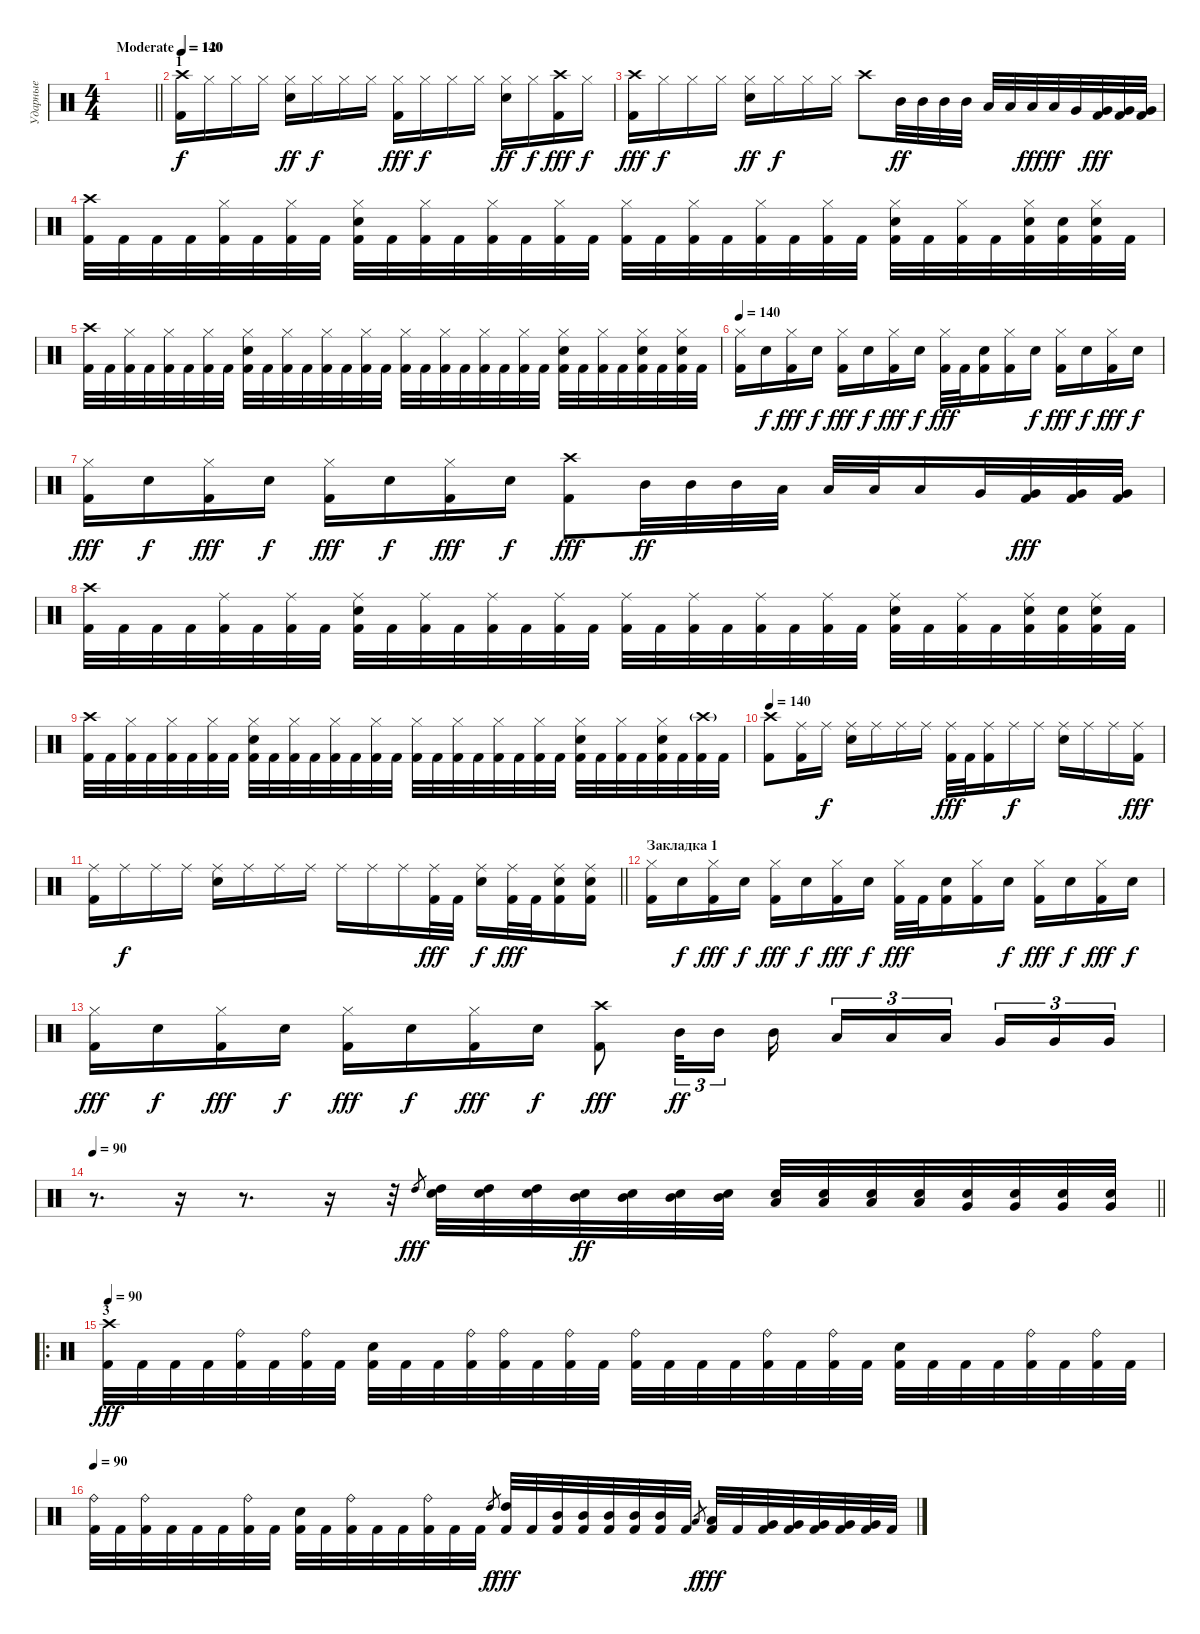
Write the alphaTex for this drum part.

\track ("Ударные" "Ударные") {instrument percussion}
\staff {score}
\articulation defaults
\ts (4 4)
\tempo (120 "Moderate")
\clef neutral
\barLineRight lightlight
\ks c
|
\section ("" "1")
\tempo 140
("Crash high (hit)" "Kick (hit) 2").16 "Hi-Hat (closed)".16{dy f} "Hi-Hat (closed)".16 "Hi-Hat (closed)".16 ("Hi-Hat (closed)" "Snare (hit) 2").16{dy ff} "Hi-Hat (closed)".16{dy f} "Hi-Hat (closed)".16 "Hi-Hat (closed)".16 ("Hi-Hat (closed)" "Kick (hit) 2").16{dy fff} "Hi-Hat (closed)".16{dy f} "Hi-Hat (closed)".16 "Hi-Hat (closed)".16 ("Hi-Hat (closed)" "Snare (hit) 2").16{dy ff} "Hi-Hat (closed)".16{dy f} ("Crash high (hit)" "Kick (hit) 2").16{dy fff} "Hi-Hat (closed)".16{dy f} |
("Crash high (hit)" "Kick (hit) 2").16{dy fff} "Hi-Hat (closed)".16{dy f} "Hi-Hat (closed)".16 "Hi-Hat (closed)".16 ("Hi-Hat (closed)" "Snare (hit) 2").16{dy ff} "Hi-Hat (closed)".16{dy f} "Hi-Hat (closed)".16 "Hi-Hat (closed)".16 "Crash high (hit)".8 "Mid Tom (hit)".32{dy ff} "Mid Tom (hit)".32 "Mid Tom (hit)".32 "Mid Tom (hit)".32 "Low Tom (hit)".32 "Low Tom (hit)".32 "Low Tom (hit)".32{dy fff} "Low Tom (hit)".32{dy ff} "Very Low Tom (hit)".32 ("Very Low Tom (hit)" "Kick (hit) 2").32{dy fff} ("Very Low Tom (hit)" "Kick (hit) 2").32 ("Very Low Tom (hit)" "Kick (hit) 2").32 |
("Crash high (hit)" "Kick (hit) 2").32 "Kick (hit) 2".32 "Kick (hit) 2".32 "Kick (hit) 2".32 ("Hi-Hat (closed)" "Kick (hit) 2").32 "Kick (hit) 2".32 ("Hi-Hat (closed)" "Kick (hit) 2").32 "Kick (hit) 2".32 ("Hi-Hat (closed)" "Snare (hit) 2" "Kick (hit) 2").32 "Kick (hit) 2".32 ("Hi-Hat (closed)" "Kick (hit) 2").32 "Kick (hit) 2".32 ("Hi-Hat (closed)" "Kick (hit) 2").32 "Kick (hit) 2".32 ("Hi-Hat (closed)" "Kick (hit) 2").32 "Kick (hit) 2".32 ("Hi-Hat (closed)" "Kick (hit) 2").32 "Kick (hit) 2".32 ("Hi-Hat (closed)" "Kick (hit) 2").32 "Kick (hit) 2".32 ("Hi-Hat (closed)" "Kick (hit) 2").32 "Kick (hit) 2".32 ("Hi-Hat (closed)" "Kick (hit) 2").32 "Kick (hit) 2".32 ("Hi-Hat (closed)" "Snare (hit) 2" "Kick (hit) 2").32 "Kick (hit) 2".32 ("Hi-Hat (closed)" "Kick (hit) 2").32 "Kick (hit) 2".32 ("Hi-Hat (closed)" "Snare (hit) 2" "Kick (hit) 2").32 ("Snare (hit) 2" "Kick (hit) 2").32 ("Hi-Hat (closed)" "Snare (hit) 2" "Kick (hit) 2").32 "Kick (hit) 2".32 |
("Crash high (hit)" "Kick (hit) 2").32 "Kick (hit) 2".32 ("Hi-Hat (closed)" "Kick (hit) 2").32 "Kick (hit) 2".32 ("Hi-Hat (closed)" "Kick (hit) 2").32 "Kick (hit) 2".32 ("Hi-Hat (closed)" "Kick (hit) 2").32 "Kick (hit) 2".32 ("Hi-Hat (closed)" "Snare (hit) 2" "Kick (hit) 2").32 "Kick (hit) 2".32 ("Hi-Hat (closed)" "Kick (hit) 2").32 "Kick (hit) 2".32 ("Hi-Hat (closed)" "Kick (hit) 2").32 "Kick (hit) 2".32 ("Hi-Hat (closed)" "Kick (hit) 2").32 "Kick (hit) 2".32 ("Hi-Hat (closed)" "Kick (hit) 2").32 "Kick (hit) 2".32 ("Hi-Hat (closed)" "Kick (hit) 2").32 "Kick (hit) 2".32 ("Hi-Hat (closed)" "Kick (hit) 2").32 "Kick (hit) 2".32 ("Hi-Hat (closed)" "Kick (hit) 2").32 "Kick (hit) 2".32 ("Hi-Hat (closed)" "Snare (hit) 2" "Kick (hit) 2").32 "Kick (hit) 2".32 ("Hi-Hat (closed)" "Kick (hit) 2").32 "Kick (hit) 2".32 ("Hi-Hat (closed)" "Snare (hit) 2" "Kick (hit) 2").32 "Kick (hit) 2".32 ("Hi-Hat (closed)" "Snare (hit) 2" "Kick (hit) 2").32 "Kick (hit) 2".32 |
\tempo 140
("Hi-Hat (closed)" "Kick (hit) 2").16 "Snare (hit) 2".16{dy f} ("Hi-Hat (closed)" "Kick (hit) 2").16{dy fff} "Snare (hit) 2".16{dy f} ("Hi-Hat (closed)" "Kick (hit) 2").16{dy fff} "Snare (hit) 2".16{dy f} ("Hi-Hat (closed)" "Kick (hit) 2").16{dy fff} "Snare (hit) 2".16{dy f} ("Hi-Hat (closed)" "Kick (hit) 2").32{dy fff} "Kick (hit) 2".32 ("Snare (hit) 2" "Kick (hit) 2").16 ("Hi-Hat (closed)" "Kick (hit) 2").16 "Snare (hit) 2".16{dy f} ("Hi-Hat (closed)" "Kick (hit) 2").16{dy fff} "Snare (hit) 2".16{dy f} ("Hi-Hat (closed)" "Kick (hit) 2").16{dy fff} "Snare (hit) 2".16{dy f} |
("Hi-Hat (closed)" "Kick (hit) 2").16{dy fff} "Snare (hit) 2".16{dy f} ("Hi-Hat (closed)" "Kick (hit) 2").16{dy fff} "Snare (hit) 2".16{dy f} ("Hi-Hat (closed)" "Kick (hit) 2").16{dy fff} "Snare (hit) 2".16{dy f} ("Hi-Hat (closed)" "Kick (hit) 2").16{dy fff} "Snare (hit) 2".16{dy f} ("Crash high (hit)" "Kick (hit) 2").8{dy fff} "Mid Tom (hit)".32{dy ff} "Mid Tom (hit)".32 "Mid Tom (hit)".32 "Low Tom (hit)".32 "Low Tom (hit)".32 "Low Tom (hit)".32 "Low Tom (hit)".16 "Very Low Tom (hit)".32 ("Very Low Tom (hit)" "Kick (hit) 2").32{dy fff} ("Very Low Tom (hit)" "Kick (hit) 2").32 ("Very Low Tom (hit)" "Kick (hit) 2").32 |
("Crash high (hit)" "Kick (hit) 2").32 "Kick (hit) 2".32 "Kick (hit) 2".32 "Kick (hit) 2".32 ("Ride (middle)" "Kick (hit) 2").32 "Kick (hit) 2".32 ("Ride (middle)" "Kick (hit) 2").32 "Kick (hit) 2".32 ("Ride (middle)" "Snare (hit) 2" "Kick (hit) 2").32 "Kick (hit) 2".32 ("Ride (middle)" "Kick (hit) 2").32 "Kick (hit) 2".32 ("Ride (middle)" "Kick (hit) 2").32 "Kick (hit) 2".32 ("Ride (middle)" "Kick (hit) 2").32 "Kick (hit) 2".32 ("Ride (middle)" "Kick (hit) 2").32 "Kick (hit) 2".32 ("Ride (middle)" "Kick (hit) 2").32 "Kick (hit) 2".32 ("Ride (middle)" "Kick (hit) 2").32 "Kick (hit) 2".32 ("Ride (middle)" "Kick (hit) 2").32 "Kick (hit) 2".32 ("Ride (middle)" "Snare (hit) 2" "Kick (hit) 2").32 "Kick (hit) 2".32 ("Ride (middle)" "Kick (hit) 2").32 "Kick (hit) 2".32 ("Ride (middle)" "Snare (hit) 2" "Kick (hit) 2").32 ("Snare (hit) 2" "Kick (hit) 2").32 ("Ride (middle)" "Snare (hit) 2" "Kick (hit) 2").32 "Kick (hit) 2".32 |
("Crash high (hit)" "Kick (hit) 2").32 "Kick (hit) 2".32 ("Hi-Hat (closed)" "Kick (hit) 2").32 "Kick (hit) 2".32 ("Hi-Hat (closed)" "Kick (hit) 2").32 "Kick (hit) 2".32 ("Hi-Hat (closed)" "Kick (hit) 2").32 "Kick (hit) 2".32 ("Hi-Hat (closed)" "Snare (hit) 2" "Kick (hit) 2").32 "Kick (hit) 2".32 ("Hi-Hat (closed)" "Kick (hit) 2").32 "Kick (hit) 2".32 ("Hi-Hat (closed)" "Kick (hit) 2").32 "Kick (hit) 2".32 ("Hi-Hat (closed)" "Kick (hit) 2").32 "Kick (hit) 2".32 ("Hi-Hat (closed)" "Kick (hit) 2").32 "Kick (hit) 2".32 ("Hi-Hat (closed)" "Kick (hit) 2").32 "Kick (hit) 2".32 ("Hi-Hat (closed)" "Kick (hit) 2").32 "Kick (hit) 2".32 ("Hi-Hat (closed)" "Kick (hit) 2").32 "Kick (hit) 2".32 ("Hi-Hat (closed)" "Snare (hit) 2" "Kick (hit) 2").32 "Kick (hit) 2".32 ("Hi-Hat (closed)" "Kick (hit) 2").32 "Kick (hit) 2".32 ("Hi-Hat (closed)" "Snare (hit) 2" "Kick (hit) 2").32 "Kick (hit) 2".32 ("Crash high (hit)"{g} "Kick (hit) 2").32 "Kick (hit) 2".32 |
\tempo 140
("Crash high (hit)" "Kick (hit) 2").8 ("Ride (middle)" "Kick (hit) 2").16 "Ride (middle)".16{dy f} ("Ride (middle)" "Snare (hit) 2").16 "Ride (middle)".16 "Ride (middle)".16 "Ride (middle)".16 ("Ride (middle)" "Kick (hit) 2").32{dy fff} "Kick (hit) 2".32 ("Ride (middle)" "Kick (hit) 2").16 "Ride (middle)".16{dy f} "Ride (middle)".16 ("Ride (middle)" "Snare (hit) 2").16 "Ride (middle)".16 "Ride (middle)".16 ("Ride (middle)" "Kick (hit) 2").16{dy fff} |
\barLineRight lightlight
("Ride (middle)" "Kick (hit) 2").16 "Ride (middle)".16{dy f} "Ride (middle)".16 "Ride (middle)".16 ("Ride (middle)" "Snare (hit) 2").16 "Ride (middle)".16 "Ride (middle)".16 "Ride (middle)".16 "Ride (middle)".16 "Ride (middle)".16 "Ride (middle)".16 ("Ride (middle)" "Kick (hit) 2").32{dy fff} "Kick (hit) 2".32 ("Ride (middle)" "Snare (hit) 2").16{dy f} ("Ride (middle)" "Kick (hit) 2").32{dy fff} "Kick (hit) 2".32 ("Ride (middle)" "Snare (hit) 2" "Kick (hit) 2").16 ("Ride (middle)" "Snare (hit) 2" "Kick (hit) 2").16 |
\section ("" "Закладка 1")
("Hi-Hat (closed)" "Kick (hit) 2").16 "Snare (hit) 2".16{dy f} ("Hi-Hat (closed)" "Kick (hit) 2").16{dy fff} "Snare (hit) 2".16{dy f} ("Hi-Hat (closed)" "Kick (hit) 2").16{dy fff} "Snare (hit) 2".16{dy f} ("Hi-Hat (closed)" "Kick (hit) 2").16{dy fff} "Snare (hit) 2".16{dy f} ("Hi-Hat (closed)" "Kick (hit) 2").32{dy fff} "Kick (hit) 2".32 ("Snare (hit) 2" "Kick (hit) 2").16 ("Hi-Hat (closed)" "Kick (hit) 2").16 "Snare (hit) 2".16{dy f} ("Hi-Hat (closed)" "Kick (hit) 2").16{dy fff} "Snare (hit) 2".16{dy f} ("Hi-Hat (closed)" "Kick (hit) 2").16{dy fff} "Snare (hit) 2".16{dy f} |
("Hi-Hat (closed)" "Kick (hit) 2").16{dy fff} "Snare (hit) 2".16{dy f} ("Hi-Hat (closed)" "Kick (hit) 2").16{dy fff} "Snare (hit) 2".16{dy f} ("Hi-Hat (closed)" "Kick (hit) 2").16{dy fff} "Snare (hit) 2".16{dy f} ("Hi-Hat (closed)" "Kick (hit) 2").16{dy fff} "Snare (hit) 2".16{dy f} ("Crash high (hit)" "Kick (hit) 2").8{dy fff} "Mid Tom (hit)".32{tu (3 2) dy ff} "Mid Tom (hit)".16{tu (3 2) beam splitsecondary} "Mid Tom (hit)".16 "Low Tom (hit)".16{tu (3 2)} "Low Tom (hit)".16{tu (3 2)} "Low Tom (hit)".16{tu (3 2) beam splitsecondary} "Very Low Tom (hit)".16{tu (3 2)} "Very Low Tom (hit)".16{tu (3 2)} "Very Low Tom (hit)".16{tu (3 2)} |
\tempo 90
\barLineRight lightlight
r.8{d} r.16 r.8{d} r.16 r.32 "High Tom (hit)".8{gr dy fff} ("High Tom (hit)" "Snare (hit) 2").32 ("High Tom (hit)" "Snare (hit) 2").32 ("High Tom (hit)" "Snare (hit) 2").32 ("Mid Tom (hit)" "Snare (hit) 2").32{dy ff} ("Mid Tom (hit)" "Snare (hit) 2").32 ("Mid Tom (hit)" "Snare (hit) 2").32 ("Mid Tom (hit)" "Snare (hit) 2").32 ("Low Tom (hit)" "Snare (hit) 2").32 ("Low Tom (hit)" "Snare (hit) 2").32 ("Low Tom (hit)" "Snare (hit) 2").32 ("Low Tom (hit)" "Snare (hit) 2").32 ("Very Low Tom (hit)" "Snare (hit) 2").32 ("Very Low Tom (hit)" "Snare (hit) 2").32 ("Very Low Tom (hit)" "Snare (hit) 2").32 ("Very Low Tom (hit)" "Snare (hit) 2").32 |
\ro
\section ("" "3")
\tempo 90
("Crash high (hit)" "Kick (hit) 2").32{dy fff} "Kick (hit) 2".32 "Kick (hit) 2".32 "Kick (hit) 2".32 ("Ride (bell)" "Kick (hit) 2").32 "Kick (hit) 2".32 ("Ride (bell)" "Kick (hit) 2").32 "Kick (hit) 2".32 ("Snare (hit) 2" "Kick (hit) 2").32 "Kick (hit) 2".32 "Kick (hit) 2".32 ("Ride (bell)" "Kick (hit) 2").32 ("Ride (bell)" "Kick (hit) 2").32 "Kick (hit) 2".32 ("Ride (bell)" "Kick (hit) 2").32 "Kick (hit) 2".32 ("Ride (bell)" "Kick (hit) 2").32 "Kick (hit) 2".32 "Kick (hit) 2".32 "Kick (hit) 2".32 ("Ride (bell)" "Kick (hit) 2").32 "Kick (hit) 2".32 ("Ride (bell)" "Kick (hit) 2").32 "Kick (hit) 2".32 ("Snare (hit) 2" "Kick (hit) 2").32 "Kick (hit) 2".32 "Kick (hit) 2".32 "Kick (hit) 2".32 ("Ride (bell)" "Kick (hit) 2").32 "Kick (hit) 2".32 ("Ride (bell)" "Kick (hit) 2").32 "Kick (hit) 2".32 |
\tempo 90
("Ride (bell)" "Kick (hit) 2").32 "Kick (hit) 2".32 ("Ride (bell)" "Kick (hit) 2").32 "Kick (hit) 2".32 "Kick (hit) 2".32 "Kick (hit) 2".32 ("Ride (bell)" "Kick (hit) 2").32 "Kick (hit) 2".32 ("Snare (hit) 2" "Kick (hit) 2").32 "Kick (hit) 2".32 ("Ride (bell)" "Kick (hit) 2").32 "Kick (hit) 2".32 "Kick (hit) 2".32 ("Ride (bell)" "Kick (hit) 2").32 "Kick (hit) 2".32 "Kick (hit) 2".32 "High Tom (hit)".8{gr dy f} ("High Tom (hit)" "Kick (hit) 2").32{dy fff} "Kick (hit) 2".32 ("Mid Tom (hit)" "Kick (hit) 2").32 ("Mid Tom (hit)" "Kick (hit) 2").32 ("Mid Tom (hit)" "Kick (hit) 2").32 ("Mid Tom (hit)" "Kick (hit) 2").32 ("Mid Tom (hit)" "Kick (hit) 2").32 "Kick (hit) 2".32 "Low Tom (hit)".8{gr dy f} ("Low Tom (hit)" "Kick (hit) 2").32{dy fff} "Kick (hit) 2".32 ("Very Low Tom (hit)" "Kick (hit) 2").32 ("Very Low Tom (hit)" "Kick (hit) 2").32 ("Very Low Tom (hit)" "Kick (hit) 2").32 ("Very Low Tom (hit)" "Kick (hit) 2").32 ("Very Low Tom (hit)" "Kick (hit) 2").32 "Kick (hit) 2".32
